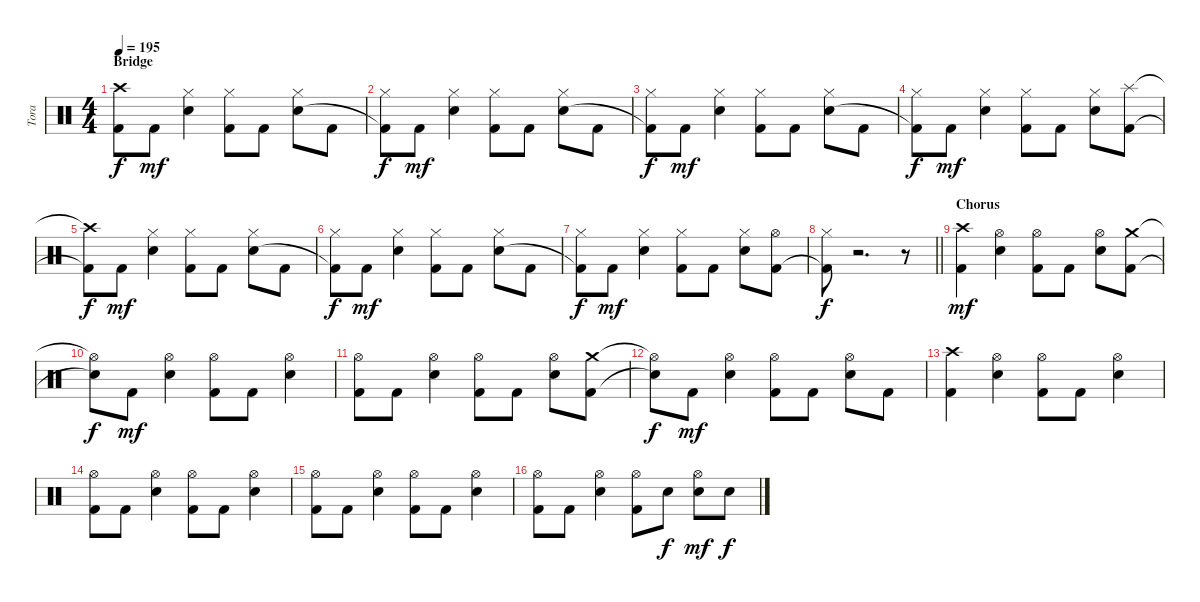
\track ("Tora" "Tora") {instrument percussion}
\staff {score}
\articulation defaults
\ts (4 4)
\section ("" "Bridge")
\tempo 195
\clef neutral
\ks c
("Crash high (hit)"{t} "Kick (hit) 2"{t}).8{dy f} "Kick (hit) 2".8{dy mf} ("Hi-Hat (closed)" "Electric Snare (hit)").4 ("Hi-Hat (closed)" "Kick (hit) 2").8 "Kick (hit) 2".8 ("Hi-Hat (closed)" "Electric Snare (hit)").8 "Kick (hit) 2".8 |
("Hi-Hat (closed)" "Kick (hit) 2"{t}).8{dy f} "Kick (hit) 2".8{dy mf} ("Hi-Hat (closed)" "Electric Snare (hit)").4 ("Hi-Hat (closed)" "Kick (hit) 2").8 "Kick (hit) 2".8 ("Hi-Hat (closed)" "Electric Snare (hit)").8 "Kick (hit) 2".8 |
("Hi-Hat (closed)" "Kick (hit) 2"{t}).8{dy f} "Kick (hit) 2".8{dy mf} ("Hi-Hat (closed)" "Electric Snare (hit)").4 ("Hi-Hat (closed)" "Kick (hit) 2").8 "Kick (hit) 2".8 ("Hi-Hat (closed)" "Electric Snare (hit)").8 "Kick (hit) 2".8 |
("Hi-Hat (closed)" "Kick (hit) 2"{t}).8{dy f} "Kick (hit) 2".8{dy mf} ("Hi-Hat (closed)" "Electric Snare (hit)").4 ("Hi-Hat (closed)" "Kick (hit) 2").8 "Kick (hit) 2".8 ("Hi-Hat (closed)" "Electric Snare (hit)").8 ("Splash (hit)" "Kick (hit) 2").8 |
("Crash high (hit)"{t} "Kick (hit) 2"{t}).8{dy f} "Kick (hit) 2".8{dy mf} ("Hi-Hat (closed)" "Electric Snare (hit)").4 ("Hi-Hat (closed)" "Kick (hit) 2").8 "Kick (hit) 2".8 ("Hi-Hat (closed)" "Electric Snare (hit)").8 "Kick (hit) 2".8 |
("Hi-Hat (closed)" "Kick (hit) 2"{t}).8{dy f} "Kick (hit) 2".8{dy mf} ("Hi-Hat (closed)" "Electric Snare (hit)").4 ("Hi-Hat (closed)" "Kick (hit) 2").8 "Kick (hit) 2".8 ("Hi-Hat (closed)" "Electric Snare (hit)").8 "Kick (hit) 2".8 |
("Hi-Hat (closed)" "Kick (hit) 2"{t}).8{dy f} "Kick (hit) 2".8{dy mf} ("Hi-Hat (closed)" "Electric Snare (hit)").4 ("Hi-Hat (closed)" "Kick (hit) 2").8 "Kick (hit) 2".8 ("Hi-Hat (closed)" "Electric Snare (hit)").8 ("Hi-Hat (open)" "Kick (hit) 2").8 |
\barLineRight lightlight
("Hi-Hat (closed)" "Kick (hit) 2"{t}).8{dy f} r.2{d} r.8 |
\section ("" "Chorus")
("Crash high (hit)" "Kick (hit) 2").4{dy mf} ("Hi-Hat (open)" "Electric Snare (hit)").4 ("Hi-Hat (open)" "Kick (hit) 2").8 "Kick (hit) 2".8 ("Hi-Hat (open)" "Electric Snare (hit)").8 ("Crash medium (hit)" "Kick (hit) 2").8 |
("Hi-Hat (open)"{t} "Snare (hit)"{t}).8{dy f} "Kick (hit) 2".8{dy mf} ("Hi-Hat (open)" "Electric Snare (hit)").4 ("Hi-Hat (open)" "Kick (hit) 2").8 "Kick (hit) 2".8 ("Hi-Hat (open)" "Electric Snare (hit)").4 |
("Hi-Hat (open)" "Kick (hit) 2").8 "Kick (hit) 2".8 ("Hi-Hat (open)" "Electric Snare (hit)").4 ("Hi-Hat (open)" "Kick (hit) 2").8 "Kick (hit) 2".8 ("Hi-Hat (open)" "Electric Snare (hit)").8 ("Crash medium (hit)" "Kick (hit) 2").8 |
("Hi-Hat (open)"{t} "Snare (hit)"{t}).8{dy f} "Kick (hit) 2".8{dy mf} ("Hi-Hat (open)" "Electric Snare (hit)").4 ("Hi-Hat (open)" "Kick (hit) 2").8 "Kick (hit) 2".8 ("Hi-Hat (open)" "Electric Snare (hit)").8 "Kick (hit) 2".8 |
("Crash high (hit)" "Kick (hit) 2").4 ("Hi-Hat (open)" "Electric Snare (hit)").4 ("Hi-Hat (open)" "Kick (hit) 2").8 "Kick (hit) 2".8 ("Hi-Hat (open)" "Electric Snare (hit)").4 |
("Hi-Hat (open)" "Kick (hit) 2").8 "Kick (hit) 2".8 ("Hi-Hat (open)" "Electric Snare (hit)").4 ("Hi-Hat (open)" "Kick (hit) 2").8 "Kick (hit) 2".8 ("Hi-Hat (open)" "Electric Snare (hit)").4 |
("Hi-Hat (open)" "Kick (hit) 2").8 "Kick (hit) 2".8 ("Hi-Hat (open)" "Electric Snare (hit)").4 ("Hi-Hat (open)" "Kick (hit) 2").8 "Kick (hit) 2".8 ("Hi-Hat (open)" "Electric Snare (hit)").4 |
("Hi-Hat (open)" "Kick (hit) 2").8 "Kick (hit) 2".8 ("Hi-Hat (open)" "Electric Snare (hit)").4 ("Hi-Hat (open)" "Kick (hit) 2").8 "Electric Snare (hit)".8{dy f} ("Hi-Hat (open)" "Electric Snare (hit)").8{dy mf} "Electric Snare (hit)".8{dy f}
